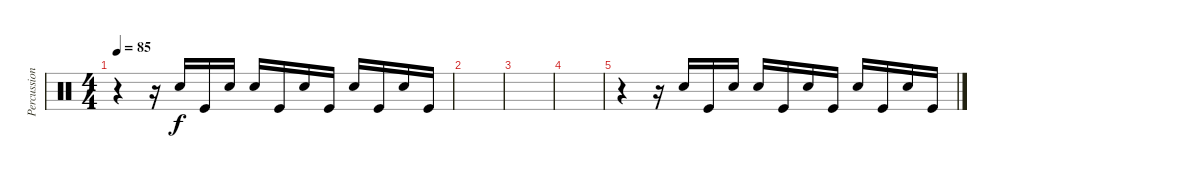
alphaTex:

\track ("Percussions" "Percussion") {instrument percussion}
\staff {score}
\articulation defaults
\ts (4 4)
\tempo 85
\clef neutral
\ks c
r.4{dy f} r.16 "Hand Clap (hit)".16 "Kick (hit)".16 "Hand Clap (hit)".16 "Hand Clap (hit)".16 "Kick (hit)".16 "Hand Clap (hit)".16 "Kick (hit)".16 "Hand Clap (hit)".16 "Kick (hit)".16 "Hand Clap (hit)".16 "Kick (hit)".16 |
|
|
|
r.4 r.16 "Hand Clap (hit)".16 "Kick (hit)".16 "Hand Clap (hit)".16 "Hand Clap (hit)".16 "Kick (hit)".16 "Hand Clap (hit)".16 "Kick (hit)".16 "Hand Clap (hit)".16 "Kick (hit)".16 "Hand Clap (hit)".16 "Kick (hit)".16
